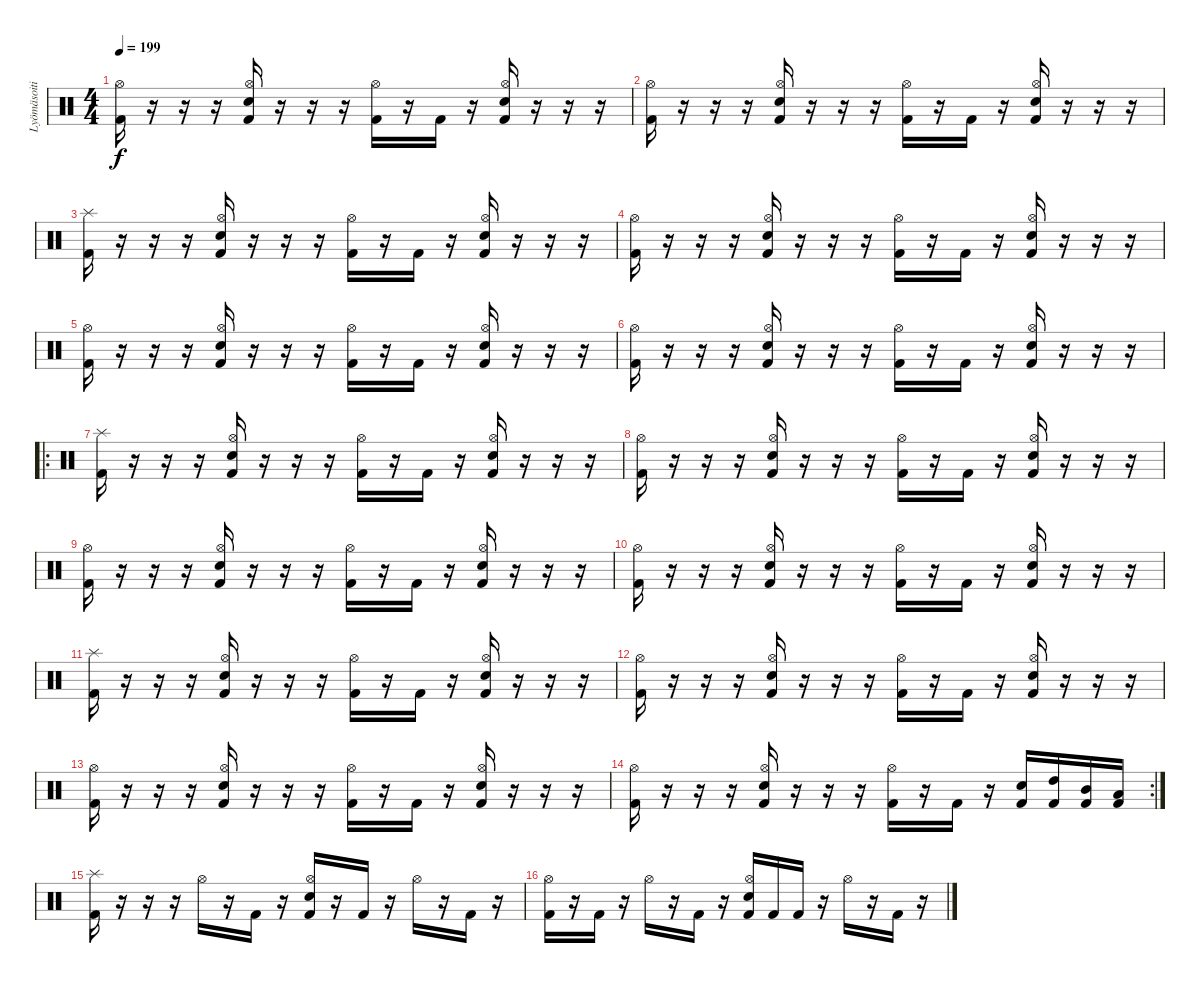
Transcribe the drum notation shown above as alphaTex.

\track ("Lyömäsoitin" "Lyömäsoiti") {instrument percussion}
\staff {score}
\articulation defaults
\ts (4 4)
\tempo 199
\clef neutral
\ks c
("Kick (hit) 2" "Hi-Hat (open)").16{dy f} r.16 r.16 r.16 ("Kick (hit) 2" "Hi-Hat (open)" "Snare (hit) 2").16 r.16 r.16 r.16 ("Kick (hit) 2" "Hi-Hat (open)").16 r.16 "Kick (hit) 2".16 r.16 ("Kick (hit) 2" "Hi-Hat (open)" "Snare (hit) 2").16 r.16 r.16 r.16 |
("Kick (hit) 2" "Hi-Hat (open)").16 r.16 r.16 r.16 ("Kick (hit) 2" "Hi-Hat (open)" "Snare (hit) 2").16 r.16 r.16 r.16 ("Kick (hit) 2" "Hi-Hat (open)").16 r.16 "Kick (hit) 2".16 r.16 ("Kick (hit) 2" "Hi-Hat (open)" "Snare (hit) 2").16 r.16 r.16 r.16 |
("Kick (hit) 2" "Splash (hit)").16 r.16 r.16 r.16 ("Kick (hit) 2" "Hi-Hat (open)" "Snare (hit) 2").16 r.16 r.16 r.16 ("Kick (hit) 2" "Hi-Hat (open)").16 r.16 "Kick (hit) 2".16 r.16 ("Kick (hit) 2" "Hi-Hat (open)" "Snare (hit) 2").16 r.16 r.16 r.16 |
("Kick (hit) 2" "Hi-Hat (open)").16 r.16 r.16 r.16 ("Kick (hit) 2" "Hi-Hat (open)" "Snare (hit) 2").16 r.16 r.16 r.16 ("Kick (hit) 2" "Hi-Hat (open)").16 r.16 "Kick (hit) 2".16 r.16 ("Kick (hit) 2" "Hi-Hat (open)" "Snare (hit) 2").16 r.16 r.16 r.16 |
("Kick (hit) 2" "Hi-Hat (open)").16 r.16 r.16 r.16 ("Kick (hit) 2" "Hi-Hat (open)" "Snare (hit) 2").16 r.16 r.16 r.16 ("Kick (hit) 2" "Hi-Hat (open)").16 r.16 "Kick (hit) 2".16 r.16 ("Kick (hit) 2" "Hi-Hat (open)" "Snare (hit) 2").16 r.16 r.16 r.16 |
("Kick (hit) 2" "Hi-Hat (open)").16 r.16 r.16 r.16 ("Kick (hit) 2" "Hi-Hat (open)" "Snare (hit) 2").16 r.16 r.16 r.16 ("Kick (hit) 2" "Hi-Hat (open)").16 r.16 "Kick (hit) 2".16 r.16 ("Kick (hit) 2" "Hi-Hat (open)" "Snare (hit) 2").16 r.16 r.16 r.16 |
\ro
("Kick (hit) 2" "Splash (hit)").16 r.16 r.16 r.16 ("Kick (hit) 2" "Hi-Hat (open)" "Snare (hit) 2").16 r.16 r.16 r.16 ("Kick (hit) 2" "Hi-Hat (open)").16 r.16 "Kick (hit) 2".16 r.16 ("Kick (hit) 2" "Hi-Hat (open)" "Snare (hit) 2").16 r.16 r.16 r.16 |
("Kick (hit) 2" "Hi-Hat (open)").16 r.16 r.16 r.16 ("Kick (hit) 2" "Hi-Hat (open)" "Snare (hit) 2").16 r.16 r.16 r.16 ("Kick (hit) 2" "Hi-Hat (open)").16 r.16 "Kick (hit) 2".16 r.16 ("Kick (hit) 2" "Hi-Hat (open)" "Snare (hit) 2").16 r.16 r.16 r.16 |
("Kick (hit) 2" "Hi-Hat (open)").16 r.16 r.16 r.16 ("Kick (hit) 2" "Hi-Hat (open)" "Snare (hit) 2").16 r.16 r.16 r.16 ("Kick (hit) 2" "Hi-Hat (open)").16 r.16 "Kick (hit) 2".16 r.16 ("Kick (hit) 2" "Hi-Hat (open)" "Snare (hit) 2").16 r.16 r.16 r.16 |
("Kick (hit) 2" "Hi-Hat (open)").16 r.16 r.16 r.16 ("Kick (hit) 2" "Hi-Hat (open)" "Snare (hit) 2").16 r.16 r.16 r.16 ("Kick (hit) 2" "Hi-Hat (open)").16 r.16 "Kick (hit) 2".16 r.16 ("Kick (hit) 2" "Hi-Hat (open)" "Snare (hit) 2").16 r.16 r.16 r.16 |
("Kick (hit) 2" "Splash (hit)").16 r.16 r.16 r.16 ("Kick (hit) 2" "Hi-Hat (open)" "Snare (hit) 2").16 r.16 r.16 r.16 ("Kick (hit) 2" "Hi-Hat (open)").16 r.16 "Kick (hit) 2".16 r.16 ("Kick (hit) 2" "Hi-Hat (open)" "Snare (hit) 2").16 r.16 r.16 r.16 |
("Kick (hit) 2" "Hi-Hat (open)").16 r.16 r.16 r.16 ("Kick (hit) 2" "Hi-Hat (open)" "Snare (hit) 2").16 r.16 r.16 r.16 ("Kick (hit) 2" "Hi-Hat (open)").16 r.16 "Kick (hit) 2".16 r.16 ("Kick (hit) 2" "Hi-Hat (open)" "Snare (hit) 2").16 r.16 r.16 r.16 |
("Kick (hit) 2" "Hi-Hat (open)").16 r.16 r.16 r.16 ("Kick (hit) 2" "Hi-Hat (open)" "Snare (hit) 2").16 r.16 r.16 r.16 ("Kick (hit) 2" "Hi-Hat (open)").16 r.16 "Kick (hit) 2".16 r.16 ("Kick (hit) 2" "Hi-Hat (open)" "Snare (hit) 2").16 r.16 r.16 r.16 |
\rc 2
("Kick (hit) 2" "Hi-Hat (open)").16 r.16 r.16 r.16 ("Kick (hit) 2" "Hi-Hat (open)" "Snare (hit) 2").16 r.16 r.16 r.16 ("Kick (hit) 2" "Hi-Hat (open)").16 r.16 "Kick (hit) 2".16 r.16 ("Kick (hit) 2" "Snare (hit) 2").16 ("Kick (hit) 2" "High Tom (hit)").16 ("Kick (hit) 2" "Mid Tom (hit)").16 ("Kick (hit) 2" "Low Tom (hit)").16 |
("Kick (hit) 2" "Splash (hit)").16 r.16 r.16 r.16 "Hi-Hat (open)".16 r.16 "Kick (hit) 2".16 r.16 ("Kick (hit) 2" "Hi-Hat (open)" "Snare (hit) 2").16 r.16 "Kick (hit) 2".16 r.16 "Hi-Hat (open)".16 r.16 "Kick (hit) 2".16 r.16 |
("Kick (hit) 2" "Hi-Hat (open)").16 r.16 "Kick (hit) 2".16 r.16 "Hi-Hat (open)".16 r.16 "Kick (hit) 2".16 r.16 ("Kick (hit) 2" "Hi-Hat (open)" "Snare (hit) 2").16 "Kick (hit) 2".16 "Kick (hit) 2".16 r.16 "Hi-Hat (open)".16 r.16 "Kick (hit) 2".16 r.16
